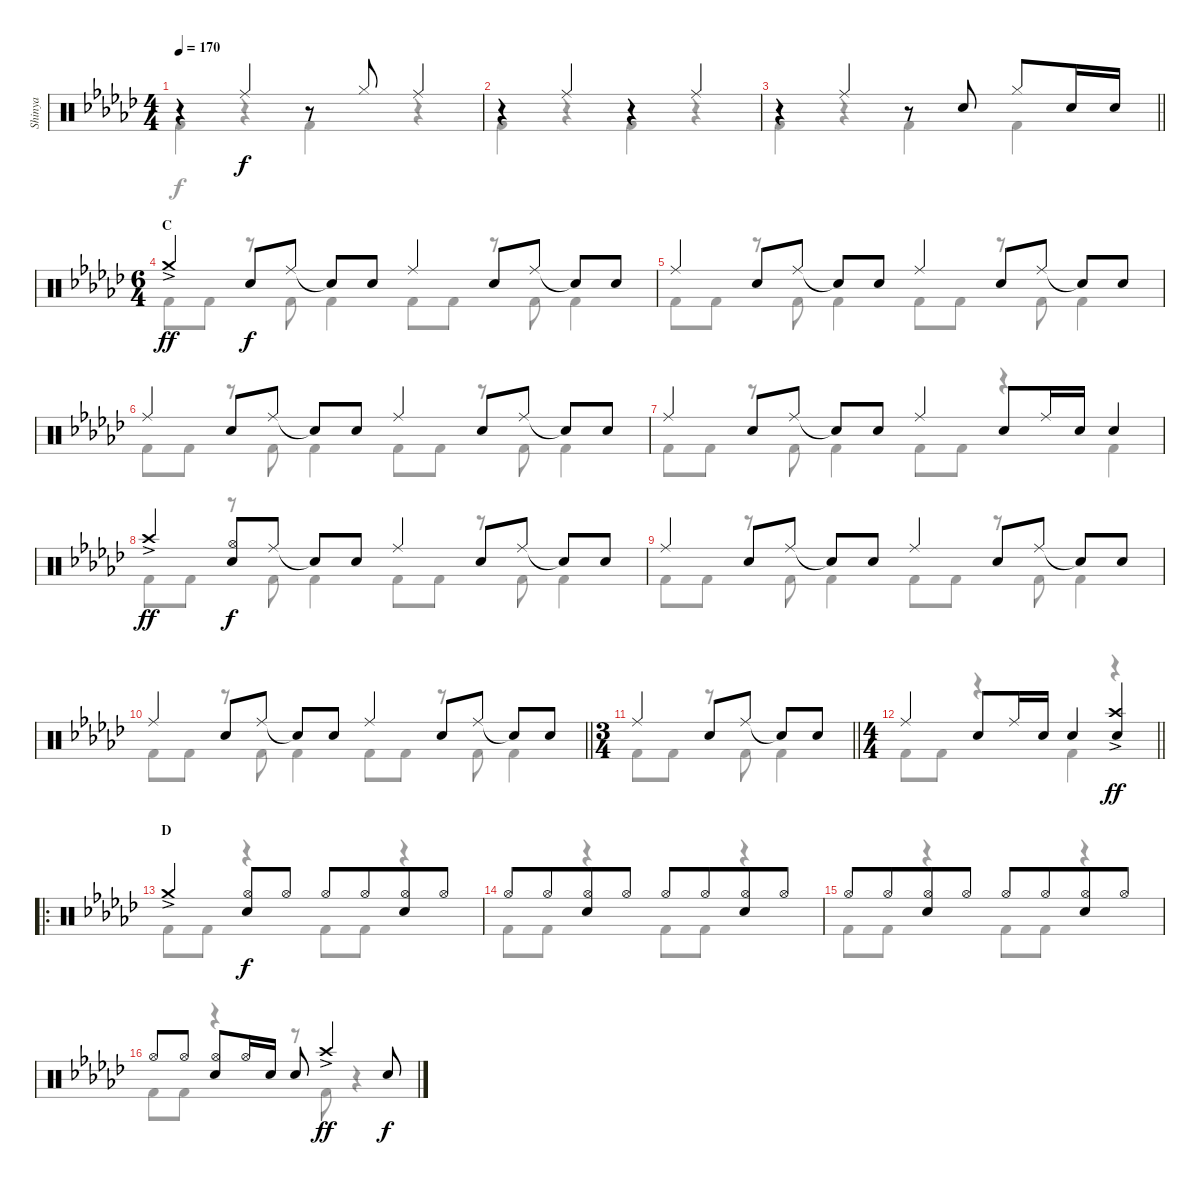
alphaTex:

\track ("Shinya" "Shinya") {instrument percussion}
\staff {score}
\articulation defaults
\voice
\ts (4 4)
\tempo 170
\clef neutral
\ks ebminor
r.4{dy f} "Ride (middle)".4 r.8 "Hi-Hat (closed)".8 "Ride (middle)".4 |
r.4 "Ride (middle)".4 r.4 "Ride (middle)".4 |
\barLineRight lightlight
r.4 "Ride (middle)".4 r.8 "Snare (hit) 2".8 "Hi-Hat (closed)".8 "Snare (hit) 2".16 "Snare (hit) 2".16 |
\ts (6 4)
\section ("" "C")
"Crash medium (hit)"{ac}.4{dy ff} "Snare (hit) 2".8{dy f} "Ride (middle)".8{beam split} "Snare (hit)"{t}.8 "Snare (hit) 2".8 "Ride (middle)".4 "Snare (hit) 2".8 "Ride (middle)".8{beam split} "Snare (hit)"{t}.8 "Snare (hit) 2".8 |
"Ride (middle)".4 "Snare (hit) 2".8 "Ride (middle)".8{beam split} "Snare (hit)"{t}.8 "Snare (hit) 2".8 "Ride (middle)".4 "Snare (hit) 2".8 "Ride (middle)".8{beam split} "Snare (hit)"{t}.8 "Snare (hit) 2".8 |
"Ride (middle)".4 "Snare (hit) 2".8 "Ride (middle)".8{beam split} "Snare (hit)"{t}.8 "Snare (hit) 2".8 "Ride (middle)".4 "Snare (hit) 2".8 "Ride (middle)".8{beam split} "Snare (hit)"{t}.8 "Snare (hit) 2".8 |
"Ride (middle)".4 "Snare (hit) 2".8 "Ride (middle)".8{beam split} "Snare (hit)"{t}.8 "Snare (hit) 2".8 "Ride (middle)".4 "Snare (hit) 2".8 "Ride (middle)".16 "Snare (hit) 2".16 "Snare (hit) 2".4 |
"Crash high (hit)"{ac}.4{dy ff} ("Hi-Hat (open)" "Snare (hit) 2").8{dy f} "Ride (middle)".8{beam split} "Snare (hit)"{t}.8 "Snare (hit) 2".8 "Ride (middle)".4 "Snare (hit) 2".8 "Ride (middle)".8{beam split} "Snare (hit)"{t}.8 "Snare (hit) 2".8 |
"Ride (middle)".4 "Snare (hit) 2".8 "Ride (middle)".8{beam split} "Snare (hit)"{t}.8 "Snare (hit) 2".8 "Ride (middle)".4 "Snare (hit) 2".8 "Ride (middle)".8{beam split} "Snare (hit)"{t}.8 "Snare (hit) 2".8 |
\barLineRight lightlight "Ride (middle)".4 "Snare (hit) 2".8 "Ride (middle)".8{beam split} "Snare (hit)"{t}.8 "Snare (hit) 2".8 "Ride (middle)".4 "Snare (hit) 2".8 "Ride (middle)".8{beam split} "Snare (hit)"{t}.8 "Snare (hit) 2".8
|
\ts (3 4)
\section ("" "")
\barLineRight lightlight "Ride (middle)".4 "Snare (hit) 2".8 "Ride (middle)".8 "Snare (hit)"{t}.8 "Snare (hit) 2".8
|
\ts (4 4)
\section ("" "")
\barLineRight lightlight "Ride (middle)".4 "Snare (hit) 2".8 "Ride (middle)".16 "Snare (hit) 2".16 "Snare (hit) 2".4
("Crash high (hit)"{ac} "Snare (hit) 2").4{dy ff} |
\ro
\section ("" "D")
"Crash medium (hit)"{ac}.4 ("Hi-Hat (open)" "Snare (hit) 2").8{dy f} "Hi-Hat (open)".8 "Hi-Hat (open)".8 "Hi-Hat (open)".8{beam merge} ("Hi-Hat (open)" "Snare (hit) 2").8 "Hi-Hat (open)".8 |
"Hi-Hat (open)".8 "Hi-Hat (open)".8{beam merge} ("Hi-Hat (open)" "Snare (hit) 2").8 "Hi-Hat (open)".8 "Hi-Hat (open)".8 "Hi-Hat (open)".8{beam merge} ("Hi-Hat (open)" "Snare (hit) 2").8 "Hi-Hat (open)".8 |
"Hi-Hat (open)".8 "Hi-Hat (open)".8{beam merge} ("Hi-Hat (open)" "Snare (hit) 2").8 "Hi-Hat (open)".8 "Hi-Hat (open)".8 "Hi-Hat (open)".8{beam merge} ("Hi-Hat (open)" "Snare (hit) 2").8 "Hi-Hat (open)".8 |
"Hi-Hat (open)".8 "Hi-Hat (open)".8 ("Hi-Hat (open)" "Snare (hit) 2").8 "Hi-Hat (open)".16 "Snare (hit) 2".16 "Snare (hit) 2".8 "Crash high (hit)"{ac}.4{dy ff} "Snare (hit) 2".8{dy f}
\voice
\clef neutral
\ottava regular
\simile none
\ks ebminor "Kick (hit) 2".4{dy f}
r.4 "Kick (hit) 2".4 r.4 |
"Kick (hit) 2".4 r.4 "Kick (hit) 2".4 r.4 |
\barLineRight lightlight "Kick (hit) 2".4
r.4 "Kick (hit) 2".4 "Kick (hit) 2".4 |
"Kick (hit) 2".8 "Kick (hit) 2".8 r.8 "Kick (hit) 2".8 "Kick (hit) 2".4 "Kick (hit) 2".8 "Kick (hit) 2".8 r.8 "Kick (hit) 2".8 "Kick (hit) 2".4 |
"Kick (hit) 2".8 "Kick (hit) 2".8 r.8 "Kick (hit) 2".8 "Kick (hit) 2".4 "Kick (hit) 2".8 "Kick (hit) 2".8 r.8 "Kick (hit) 2".8 "Kick (hit) 2".4 |
"Kick (hit) 2".8 "Kick (hit) 2".8 r.8 "Kick (hit) 2".8 "Kick (hit) 2".4 "Kick (hit) 2".8 "Kick (hit) 2".8 r.8 "Kick (hit) 2".8 "Kick (hit) 2".4 |
"Kick (hit) 2".8 "Kick (hit) 2".8 r.8 "Kick (hit) 2".8 "Kick (hit) 2".4 "Kick (hit) 2".8 "Kick (hit) 2".8 r.4 "Kick (hit) 2".4 |
"Kick (hit) 2".8 "Kick (hit) 2".8 r.8 "Kick (hit) 2".8 "Kick (hit) 2".4 "Kick (hit) 2".8 "Kick (hit) 2".8 r.8 "Kick (hit) 2".8 "Kick (hit) 2".4 |
"Kick (hit) 2".8 "Kick (hit) 2".8 r.8 "Kick (hit) 2".8 "Kick (hit) 2".4 "Kick (hit) 2".8 "Kick (hit) 2".8 r.8 "Kick (hit) 2".8 "Kick (hit) 2".4 |
\barLineRight lightlight "Kick (hit) 2".8 "Kick (hit) 2".8
r.8 "Kick (hit) 2".8 "Kick (hit) 2".4 "Kick (hit) 2".8 "Kick (hit) 2".8 r.8 "Kick (hit) 2".8 "Kick (hit) 2".4 |
\barLineRight lightlight "Kick (hit) 2".8 "Kick (hit) 2".8
r.8 "Kick (hit) 2".8 "Kick (hit) 2".4 |
\barLineRight lightlight "Kick (hit) 2".8 "Kick (hit) 2".8
r.4 "Kick (hit) 2".4 r.4 |
"Kick (hit) 2".8 "Kick (hit) 2".8 r.4 "Kick (hit) 2".8 "Kick (hit) 2".8 r.4 |
"Kick (hit) 2".8 "Kick (hit) 2".8 r.4 "Kick (hit) 2".8 "Kick (hit) 2".8 r.4 |
"Kick (hit) 2".8 "Kick (hit) 2".8 r.4 "Kick (hit) 2".8 "Kick (hit) 2".8 r.4 |
"Kick (hit) 2".8 "Kick (hit) 2".8 r.4 r.8 "Kick (hit) 2".8 r.4
